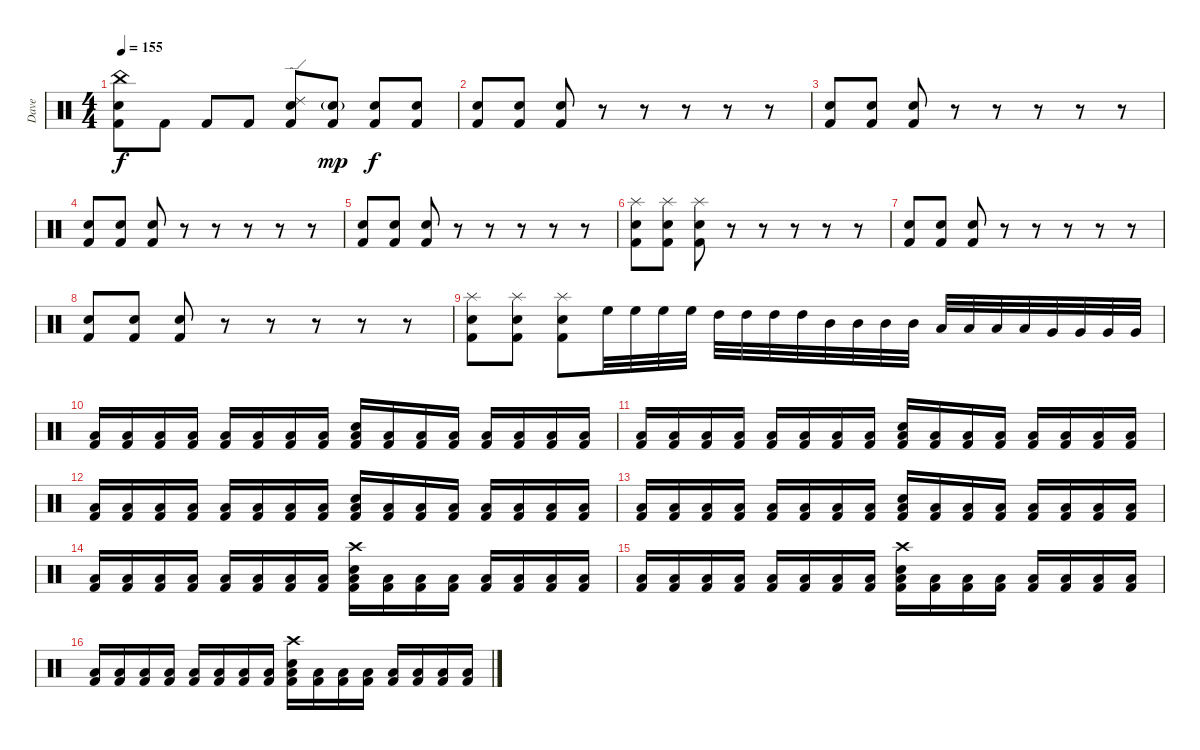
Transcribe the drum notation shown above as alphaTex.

\track ("Dave" "Dave") {instrument percussion}
\staff {score}
\articulation defaults
\ts (4 4)
\tempo 155
\clef neutral
\ks c
("China (hit)" "Snare (hit) 2" "Kick (hit) 2").8{dy f} "Kick (hit) 2".8 "Kick (hit) 2".8 "Kick (hit) 2".8 ("Ride (edge) 2" "Snare (hit) 2" "Kick (hit) 2").8 ("Snare (hit) 2"{g} "Kick (hit) 2").8{dy mp} ("Snare (hit) 2" "Kick (hit) 2").8{dy f} ("Snare (hit) 2" "Kick (hit) 2").8 |
("Snare (hit) 2" "Kick (hit) 2").8 ("Snare (hit) 2" "Kick (hit) 2").8 ("Snare (hit) 2" "Kick (hit) 2").8 r.8 r.8 r.8 r.8 r.8 |
("Snare (hit) 2" "Kick (hit) 2").8 ("Snare (hit) 2" "Kick (hit) 2").8 ("Snare (hit) 2" "Kick (hit) 2").8 r.8 r.8 r.8 r.8 r.8 |
("Snare (hit) 2" "Kick (hit) 2").8 ("Snare (hit) 2" "Kick (hit) 2").8 ("Snare (hit) 2" "Kick (hit) 2").8 r.8 r.8 r.8 r.8 r.8 |
("Snare (hit) 2" "Kick (hit) 2").8 ("Snare (hit) 2" "Kick (hit) 2").8 ("Snare (hit) 2" "Kick (hit) 2").8 r.8 r.8 r.8 r.8 r.8 |
("Splash (hit)" "Snare (hit) 2" "Kick (hit) 2").8 ("Splash (hit)" "Snare (hit) 2" "Kick (hit) 2").8 ("Splash (hit)" "Snare (hit) 2" "Kick (hit) 2").8 r.8 r.8 r.8 r.8 r.8 |
("Snare (hit) 2" "Kick (hit) 2").8 ("Snare (hit) 2" "Kick (hit) 2").8 ("Snare (hit) 2" "Kick (hit) 2").8 r.8 r.8 r.8 r.8 r.8 |
("Snare (hit) 2" "Kick (hit) 2").8 ("Snare (hit) 2" "Kick (hit) 2").8 ("Snare (hit) 2" "Kick (hit) 2").8 r.8 r.8 r.8 r.8 r.8 |
("Splash (hit)" "Snare (hit) 2" "Kick (hit) 2").8 ("Splash (hit)" "Snare (hit) 2" "Kick (hit) 2").8 ("Splash (hit)" "Snare (hit) 2" "Kick (hit) 2").8 "High Floor Tom (hit)".32 "High Floor Tom (hit)".32 "High Floor Tom (hit)".32 "High Floor Tom (hit)".32 "High Tom (hit)".32 "High Tom (hit)".32 "High Tom (hit)".32 "High Tom (hit)".32 "Mid Tom (hit)".32 "Mid Tom (hit)".32 "Mid Tom (hit)".32 "Mid Tom (hit)".32 "Low Tom (hit)".32 "Low Tom (hit)".32 "Low Tom (hit)".32 "Low Tom (hit)".32 "Very Low Tom (hit)".32 "Very Low Tom (hit)".32 "Very Low Tom (hit)".32 "Very Low Tom (hit)".32 |
("Low Floor Tom (hit)" "Kick (hit) 2").16 ("Low Floor Tom (hit)" "Kick (hit) 2").16 ("Low Floor Tom (hit)" "Kick (hit) 2").16 ("Low Floor Tom (hit)" "Kick (hit) 2").16 ("Low Floor Tom (hit)" "Kick (hit) 2").16 ("Low Floor Tom (hit)" "Kick (hit) 2").16 ("Low Floor Tom (hit)" "Kick (hit) 2").16 ("Low Floor Tom (hit)" "Kick (hit) 2").16 ("Low Floor Tom (hit)" "Snare (hit) 2" "Kick (hit) 2").16 ("Low Floor Tom (hit)" "Kick (hit) 2").16 ("Low Floor Tom (hit)" "Kick (hit) 2").16 ("Low Floor Tom (hit)" "Kick (hit) 2").16 ("Low Floor Tom (hit)" "Kick (hit) 2").16 ("Low Floor Tom (hit)" "Kick (hit) 2").16 ("Low Floor Tom (hit)" "Kick (hit) 2").16 ("Low Floor Tom (hit)" "Kick (hit) 2").16 |
("Low Floor Tom (hit)" "Kick (hit) 2").16 ("Low Floor Tom (hit)" "Kick (hit) 2").16 ("Low Floor Tom (hit)" "Kick (hit) 2").16 ("Low Floor Tom (hit)" "Kick (hit) 2").16 ("Low Floor Tom (hit)" "Kick (hit) 2").16 ("Low Floor Tom (hit)" "Kick (hit) 2").16 ("Low Floor Tom (hit)" "Kick (hit) 2").16 ("Low Floor Tom (hit)" "Kick (hit) 2").16 ("Low Floor Tom (hit)" "Snare (hit) 2" "Kick (hit) 2").16 ("Low Floor Tom (hit)" "Kick (hit) 2").16 ("Low Floor Tom (hit)" "Kick (hit) 2").16 ("Low Floor Tom (hit)" "Kick (hit) 2").16 ("Low Floor Tom (hit)" "Kick (hit) 2").16 ("Low Floor Tom (hit)" "Kick (hit) 2").16 ("Low Floor Tom (hit)" "Kick (hit) 2").16 ("Low Floor Tom (hit)" "Kick (hit) 2").16 |
("Low Floor Tom (hit)" "Kick (hit) 2").16 ("Low Floor Tom (hit)" "Kick (hit) 2").16 ("Low Floor Tom (hit)" "Kick (hit) 2").16 ("Low Floor Tom (hit)" "Kick (hit) 2").16 ("Low Floor Tom (hit)" "Kick (hit) 2").16 ("Low Floor Tom (hit)" "Kick (hit) 2").16 ("Low Floor Tom (hit)" "Kick (hit) 2").16 ("Low Floor Tom (hit)" "Kick (hit) 2").16 ("Low Floor Tom (hit)" "Snare (hit) 2" "Kick (hit) 2").16 ("Low Floor Tom (hit)" "Kick (hit) 2").16 ("Low Floor Tom (hit)" "Kick (hit) 2").16 ("Low Floor Tom (hit)" "Kick (hit) 2").16 ("Low Floor Tom (hit)" "Kick (hit) 2").16 ("Low Floor Tom (hit)" "Kick (hit) 2").16 ("Low Floor Tom (hit)" "Kick (hit) 2").16 ("Low Floor Tom (hit)" "Kick (hit) 2").16 |
("Low Floor Tom (hit)" "Kick (hit) 2").16 ("Low Floor Tom (hit)" "Kick (hit) 2").16 ("Low Floor Tom (hit)" "Kick (hit) 2").16 ("Low Floor Tom (hit)" "Kick (hit) 2").16 ("Low Floor Tom (hit)" "Kick (hit) 2").16 ("Low Floor Tom (hit)" "Kick (hit) 2").16 ("Low Floor Tom (hit)" "Kick (hit) 2").16 ("Low Floor Tom (hit)" "Kick (hit) 2").16 ("Low Floor Tom (hit)" "Snare (hit) 2" "Kick (hit) 2").16 ("Low Floor Tom (hit)" "Kick (hit) 2").16 ("Low Floor Tom (hit)" "Kick (hit) 2").16 ("Low Floor Tom (hit)" "Kick (hit) 2").16 ("Low Floor Tom (hit)" "Kick (hit) 2").16 ("Low Floor Tom (hit)" "Kick (hit) 2").16 ("Low Floor Tom (hit)" "Kick (hit) 2").16 ("Low Floor Tom (hit)" "Kick (hit) 2").16 |
("Low Floor Tom (hit)" "Kick (hit) 2").16 ("Low Floor Tom (hit)" "Kick (hit) 2").16 ("Low Floor Tom (hit)" "Kick (hit) 2").16 ("Low Floor Tom (hit)" "Kick (hit) 2").16 ("Low Floor Tom (hit)" "Kick (hit) 2").16 ("Low Floor Tom (hit)" "Kick (hit) 2").16 ("Low Floor Tom (hit)" "Kick (hit) 2").16 ("Low Floor Tom (hit)" "Kick (hit) 2").16 ("Crash high (hit)" "Low Floor Tom (hit)" "Snare (hit) 2" "Kick (hit) 2").16 ("Low Floor Tom (hit)" "Kick (hit) 2").16 ("Low Floor Tom (hit)" "Kick (hit) 2").16 ("Low Floor Tom (hit)" "Kick (hit) 2").16 ("Low Floor Tom (hit)" "Kick (hit) 2").16 ("Low Floor Tom (hit)" "Kick (hit) 2").16 ("Low Floor Tom (hit)" "Kick (hit) 2").16 ("Low Floor Tom (hit)" "Kick (hit) 2").16 |
("Low Floor Tom (hit)" "Kick (hit) 2").16 ("Low Floor Tom (hit)" "Kick (hit) 2").16 ("Low Floor Tom (hit)" "Kick (hit) 2").16 ("Low Floor Tom (hit)" "Kick (hit) 2").16 ("Low Floor Tom (hit)" "Kick (hit) 2").16 ("Low Floor Tom (hit)" "Kick (hit) 2").16 ("Low Floor Tom (hit)" "Kick (hit) 2").16 ("Low Floor Tom (hit)" "Kick (hit) 2").16 ("Crash high (hit)" "Low Floor Tom (hit)" "Snare (hit) 2" "Kick (hit) 2").16 ("Low Floor Tom (hit)" "Kick (hit) 2").16 ("Low Floor Tom (hit)" "Kick (hit) 2").16 ("Low Floor Tom (hit)" "Kick (hit) 2").16 ("Low Floor Tom (hit)" "Kick (hit) 2").16 ("Low Floor Tom (hit)" "Kick (hit) 2").16 ("Low Floor Tom (hit)" "Kick (hit) 2").16 ("Low Floor Tom (hit)" "Kick (hit) 2").16 |
("Low Floor Tom (hit)" "Kick (hit) 2").16 ("Low Floor Tom (hit)" "Kick (hit) 2").16 ("Low Floor Tom (hit)" "Kick (hit) 2").16 ("Low Floor Tom (hit)" "Kick (hit) 2").16 ("Low Floor Tom (hit)" "Kick (hit) 2").16 ("Low Floor Tom (hit)" "Kick (hit) 2").16 ("Low Floor Tom (hit)" "Kick (hit) 2").16 ("Low Floor Tom (hit)" "Kick (hit) 2").16 ("Crash high (hit)" "Low Floor Tom (hit)" "Snare (hit) 2" "Kick (hit) 2").16 ("Low Floor Tom (hit)" "Kick (hit) 2").16 ("Low Floor Tom (hit)" "Kick (hit) 2").16 ("Low Floor Tom (hit)" "Kick (hit) 2").16 ("Low Floor Tom (hit)" "Kick (hit) 2").16 ("Low Floor Tom (hit)" "Kick (hit) 2").16 ("Low Floor Tom (hit)" "Kick (hit) 2").16 ("Low Floor Tom (hit)" "Kick (hit) 2").16
